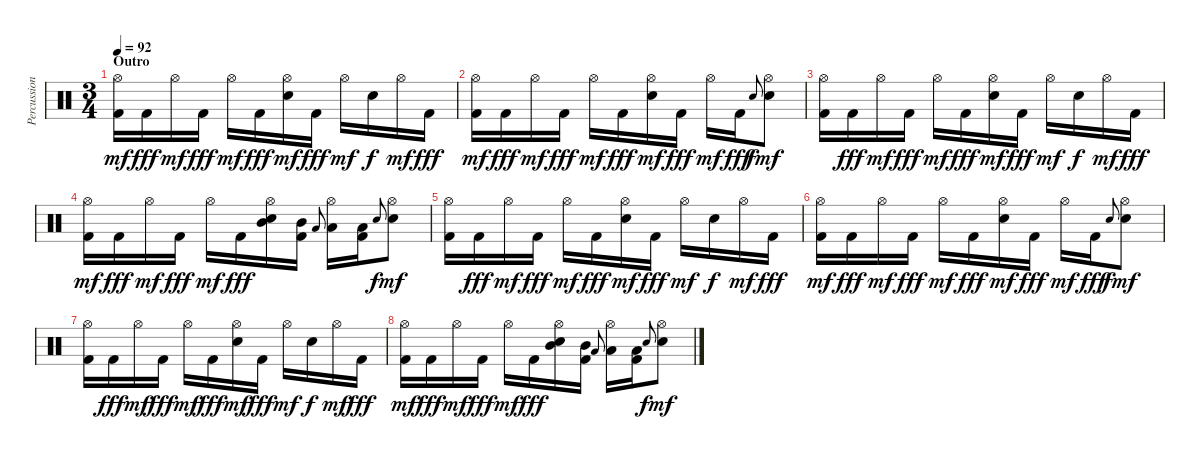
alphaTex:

\track ("Percussion" "Percussion") {instrument percussion}
\staff {score}
\articulation defaults
\ts (3 4)
\section ("" "Outro")
\tempo 92
\clef neutral
\ks c
("Kick (hit) 2" "Hi-Hat (open)").16{dy mf} "Kick (hit) 2".16{dy fff} "Hi-Hat (open)".16{dy mf} "Kick (hit) 2".16{dy fff} "Hi-Hat (open)".16{dy mf} "Kick (hit) 2".16{dy fff} ("Electric Snare (hit)" "Hi-Hat (open)").16{dy mf} "Kick (hit) 2".16{dy fff} "Hi-Hat (open)".16{dy mf} "Electric Snare (hit)".16{dy f} "Hi-Hat (open)".16{dy mf} "Kick (hit) 2".16{dy fff} |
("Kick (hit) 2" "Hi-Hat (open)").16{dy mf} "Kick (hit) 2".16{dy fff} "Hi-Hat (open)".16{dy mf} "Kick (hit) 2".16{dy fff} "Hi-Hat (open)".16{dy mf} "Kick (hit) 2".16{dy fff} ("Electric Snare (hit)" "Hi-Hat (open)").16{dy mf} "Kick (hit) 2".16{dy fff} "Hi-Hat (open)".16{dy mf} "Kick (hit) 2".16{dy fff} "Electric Snare (hit)".8{gr onbeat dy f} ("Electric Snare (hit)" "Hi-Hat (open)").8{dy mf} |
("Kick (hit) 2" "Hi-Hat (open)").16 "Kick (hit) 2".16{dy fff} "Hi-Hat (open)".16{dy mf} "Kick (hit) 2".16{dy fff} "Hi-Hat (open)".16{dy mf} "Kick (hit) 2".16{dy fff} ("Electric Snare (hit)" "Hi-Hat (open)").16{dy mf} "Kick (hit) 2".16{dy fff} "Hi-Hat (open)".16{dy mf} "Electric Snare (hit)".16{dy f} "Hi-Hat (open)".16{dy mf} "Kick (hit) 2".16{dy fff} |
("Kick (hit) 2" "Hi-Hat (open)").16{dy mf} "Kick (hit) 2".16{dy fff} "Hi-Hat (open)".16{dy mf} "Kick (hit) 2".16{dy fff} "Hi-Hat (open)".16{dy mf} "Kick (hit) 2".16{dy fff} ("Electric Snare (hit)" "Hi-Hat (open)" "Mid Tom (hit)").16 ("Kick (hit) 2" "Mid Tom (hit)").16 "Low Tom (hit)".8{gr onbeat} ("Hi-Hat (open)" "Low Tom (hit)").16 ("Kick (hit) 2" "Low Tom (hit)").16 "Electric Snare (hit)".8{gr onbeat dy f} ("Electric Snare (hit)" "Hi-Hat (open)").8{dy mf} |
("Kick (hit) 2" "Hi-Hat (open)").16 "Kick (hit) 2".16{dy fff} "Hi-Hat (open)".16{dy mf} "Kick (hit) 2".16{dy fff} "Hi-Hat (open)".16{dy mf} "Kick (hit) 2".16{dy fff} ("Electric Snare (hit)" "Hi-Hat (open)").16{dy mf} "Kick (hit) 2".16{dy fff} "Hi-Hat (open)".16{dy mf} "Electric Snare (hit)".16{dy f} "Hi-Hat (open)".16{dy mf} "Kick (hit) 2".16{dy fff} |
("Kick (hit) 2" "Hi-Hat (open)").16{dy mf} "Kick (hit) 2".16{dy fff} "Hi-Hat (open)".16{dy mf} "Kick (hit) 2".16{dy fff} "Hi-Hat (open)".16{dy mf} "Kick (hit) 2".16{dy fff} ("Electric Snare (hit)" "Hi-Hat (open)").16{dy mf} "Kick (hit) 2".16{dy fff} "Hi-Hat (open)".16{dy mf} "Kick (hit) 2".16{dy fff} "Electric Snare (hit)".8{gr onbeat dy f} ("Electric Snare (hit)" "Hi-Hat (open)").8{dy mf} |
("Kick (hit) 2" "Hi-Hat (open)").16 "Kick (hit) 2".16{dy fff} "Hi-Hat (open)".16{dy mf} "Kick (hit) 2".16{dy fff} "Hi-Hat (open)".16{dy mf} "Kick (hit) 2".16{dy fff} ("Electric Snare (hit)" "Hi-Hat (open)").16{dy mf} "Kick (hit) 2".16{dy fff} "Hi-Hat (open)".16{dy mf} "Electric Snare (hit)".16{dy f} "Hi-Hat (open)".16{dy mf} "Kick (hit) 2".16{dy fff} |
("Kick (hit) 2" "Hi-Hat (open)").16{dy mf} "Kick (hit) 2".16{dy fff} "Hi-Hat (open)".16{dy mf} "Kick (hit) 2".16{dy fff} "Hi-Hat (open)".16{dy mf} "Kick (hit) 2".16{dy fff} ("Electric Snare (hit)" "Hi-Hat (open)" "Mid Tom (hit)").16 ("Kick (hit) 2" "Mid Tom (hit)").16 "Low Tom (hit)".8{gr onbeat} ("Hi-Hat (open)" "Low Tom (hit)").16 ("Kick (hit) 2" "Low Tom (hit)").16 "Electric Snare (hit)".8{gr onbeat dy f} ("Electric Snare (hit)" "Hi-Hat (open)").8{dy mf}
